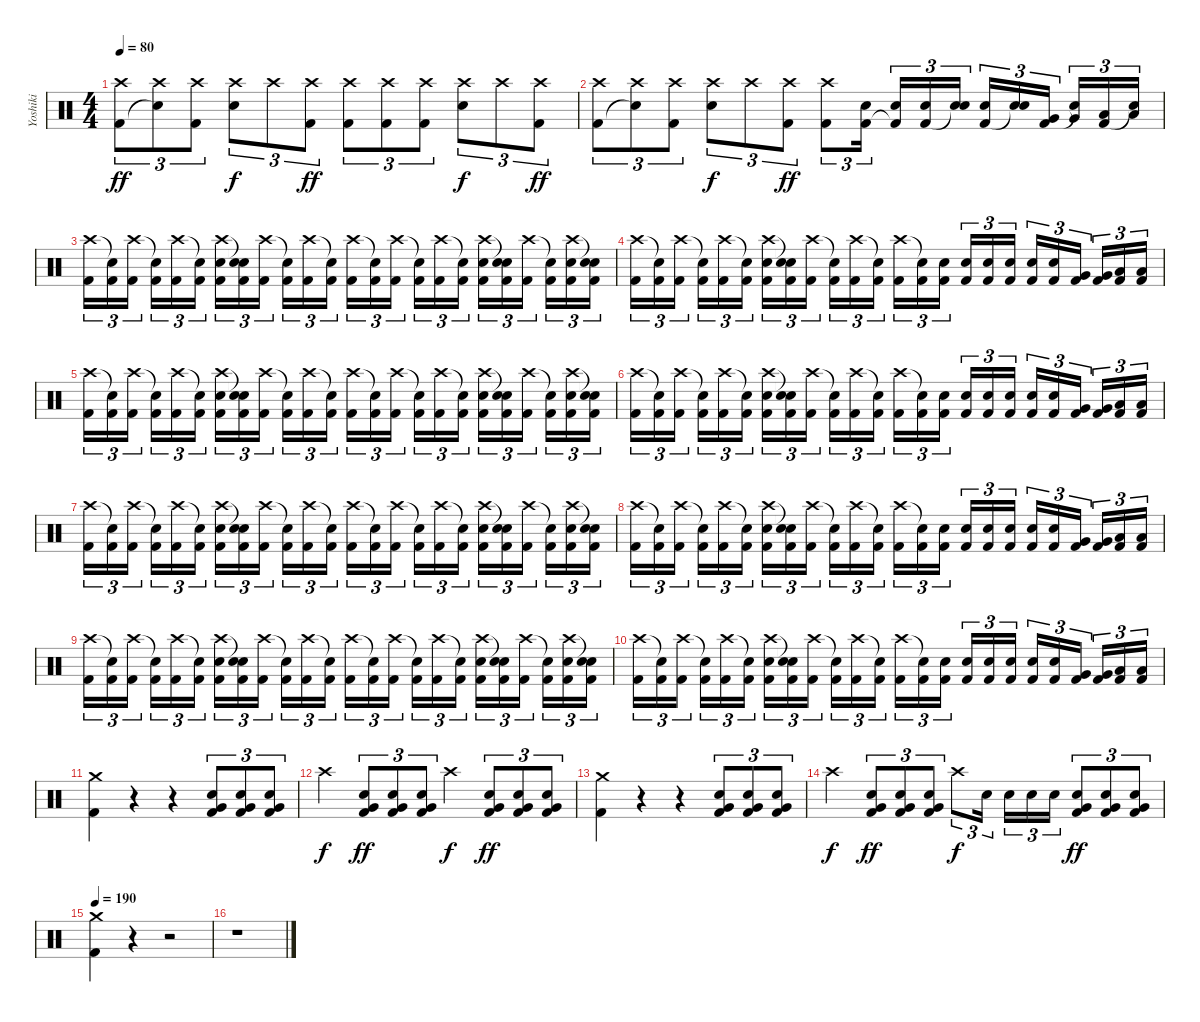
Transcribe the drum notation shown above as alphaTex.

\track ("Yoshiki" "Yoshiki") {instrument percussion}
\staff {score}
\articulation defaults
\ts (4 4)
\tempo 80
\clef neutral
\ks c
("Crash high (hit)" "Kick (hit) 2").8{tu (3 2) dy ff} ("Crash high (hit)" "Snare (hit)"{t}).8{tu (3 2)} ("Crash high (hit)" "Kick (hit) 2").8{tu (3 2)} ("Crash high (hit)" "Snare (hit) 2").8{tu (3 2) dy f} "Crash high (hit)".8{tu (3 2)} ("Crash high (hit)" "Kick (hit) 2").8{tu (3 2) dy ff} ("Crash high (hit)" "Kick (hit) 2").8{tu (3 2)} ("Crash high (hit)" "Kick (hit) 2").8{tu (3 2)} ("Crash high (hit)" "Kick (hit) 2").8{tu (3 2)} ("Crash high (hit)" "Snare (hit) 2").8{tu (3 2) dy f} "Crash high (hit)".8{tu (3 2)} ("Crash high (hit)" "Kick (hit) 2").8{tu (3 2) dy ff} |
("Crash high (hit)" "Kick (hit) 2").8{tu (3 2)} ("Crash high (hit)" "Snare (hit)"{t}).8{tu (3 2)} ("Crash high (hit)" "Kick (hit) 2").8{tu (3 2)} ("Crash high (hit)" "Snare (hit) 2").8{tu (3 2) dy f} "Crash high (hit)".8{tu (3 2)} ("Crash high (hit)" "Kick (hit) 2").8{tu (3 2) dy ff} ("Crash high (hit)" "Kick (hit) 2").8{tu (3 2)} ("Snare (hit) 2" "Kick (hit) 2").16{tu (3 2)} ("Snare (hit) 2" "Kick (hit) 2"{t}).16{tu (3 2)} ("Snare (hit) 2" "Kick (hit) 2").16{tu (3 2)} ("Snare (hit) 2" "Snare (hit)"{t}).16{tu (3 2)} ("Snare (hit) 2" "Kick (hit) 2").16{tu (3 2)} ("Snare (hit) 2" "Snare (hit)"{t}).16{tu (3 2)} ("Very Low Tom (hit)" "Kick (hit) 2").16{tu (3 2)} ("Very Low Tom (hit)" "Snare (hit)"{t}).16{tu (3 2)} ("Low Floor Tom (hit)" "Kick (hit) 2").16{tu (3 2)} ("Low Floor Tom (hit)" "Snare (hit)"{t}).16{tu (3 2)} |
("Crash high (hit)" "Kick (hit) 2").16{tu (3 2)} ("Snare (hit)"{t} "Kick (hit) 2").16{tu (3 2)} ("Crash high (hit)" "Kick (hit) 2").16{tu (3 2)} ("Snare (hit)"{t} "Kick (hit) 2").16{tu (3 2)} ("Crash high (hit)" "Kick (hit) 2").16{tu (3 2)} ("Snare (hit)"{t} "Kick (hit) 2").16{tu (3 2)} ("Crash high (hit)" "Snare (hit) 2" "Kick (hit) 2").16{tu (3 2)} ("Snare (hit)"{t} "Snare (hit)"{t} "Kick (hit) 2").16{tu (3 2)} ("Crash high (hit)" "Kick (hit) 2").16{tu (3 2)} ("Snare (hit)"{t} "Kick (hit) 2").16{tu (3 2)} ("Crash high (hit)" "Kick (hit) 2").16{tu (3 2)} ("Snare (hit)"{t} "Kick (hit) 2").16{tu (3 2)} ("Crash high (hit)" "Kick (hit) 2").16{tu (3 2)} ("Snare (hit)"{t} "Kick (hit) 2").16{tu (3 2)} ("Crash high (hit)" "Kick (hit) 2").16{tu (3 2)} ("Snare (hit)"{t} "Kick (hit) 2").16{tu (3 2)} ("Crash high (hit)" "Kick (hit) 2").16{tu (3 2)} ("Snare (hit)"{t} "Kick (hit) 2").16{tu (3 2)} ("Crash high (hit)" "Snare (hit) 2" "Kick (hit) 2").16{tu (3 2)} ("Snare (hit)"{t} "Snare (hit)"{t} "Kick (hit) 2").16{tu (3 2)} ("Crash high (hit)" "Kick (hit) 2").16{tu (3 2)} ("Snare (hit)"{t} "Kick (hit) 2").16{tu (3 2)} ("Crash high (hit)" "Snare (hit) 2" "Kick (hit) 2").16{tu (3 2)} ("Snare (hit)"{t} "Snare (hit)"{t} "Kick (hit) 2").16{tu (3 2)} |
("Crash high (hit)" "Kick (hit) 2").16{tu (3 2)} ("Snare (hit)"{t} "Kick (hit) 2").16{tu (3 2)} ("Crash high (hit)" "Kick (hit) 2").16{tu (3 2)} ("Snare (hit)"{t} "Kick (hit) 2").16{tu (3 2)} ("Crash high (hit)" "Kick (hit) 2").16{tu (3 2)} ("Snare (hit)"{t} "Kick (hit) 2").16{tu (3 2)} ("Crash high (hit)" "Snare (hit) 2" "Kick (hit) 2").16{tu (3 2)} ("Snare (hit)"{t} "Snare (hit)"{t} "Kick (hit) 2").16{tu (3 2)} ("Crash high (hit)" "Kick (hit) 2").16{tu (3 2)} ("Snare (hit)"{t} "Kick (hit) 2").16{tu (3 2)} ("Crash high (hit)" "Kick (hit) 2").16{tu (3 2)} ("Snare (hit)"{t} "Kick (hit) 2").16{tu (3 2)} ("Crash high (hit)" "Kick (hit) 2").16{tu (3 2)} ("Snare (hit)"{t} "Kick (hit) 2").16{tu (3 2)} ("Snare (hit) 2" "Kick (hit) 2").16{tu (3 2)} ("Snare (hit) 2" "Kick (hit) 2").16{tu (3 2)} ("Snare (hit) 2" "Kick (hit) 2").16{tu (3 2)} ("Snare (hit) 2" "Kick (hit) 2").16{tu (3 2)} ("Snare (hit) 2" "Kick (hit) 2").16{tu (3 2)} ("Snare (hit) 2" "Kick (hit) 2").16{tu (3 2)} ("Very Low Tom (hit)" "Kick (hit) 2").16{tu (3 2)} ("Very Low Tom (hit)" "Kick (hit) 2").16{tu (3 2)} ("Low Floor Tom (hit)" "Kick (hit) 2").16{tu (3 2)} ("Low Floor Tom (hit)" "Kick (hit) 2").16{tu (3 2)} |
("Crash high (hit)" "Kick (hit) 2").16{tu (3 2)} ("Snare (hit)"{t} "Kick (hit) 2").16{tu (3 2)} ("Crash high (hit)" "Kick (hit) 2").16{tu (3 2)} ("Snare (hit)"{t} "Kick (hit) 2").16{tu (3 2)} ("Crash high (hit)" "Kick (hit) 2").16{tu (3 2)} ("Snare (hit)"{t} "Kick (hit) 2").16{tu (3 2)} ("Crash high (hit)" "Snare (hit) 2" "Kick (hit) 2").16{tu (3 2)} ("Snare (hit)"{t} "Snare (hit)"{t} "Kick (hit) 2").16{tu (3 2)} ("Crash high (hit)" "Kick (hit) 2").16{tu (3 2)} ("Snare (hit)"{t} "Kick (hit) 2").16{tu (3 2)} ("Crash high (hit)" "Kick (hit) 2").16{tu (3 2)} ("Snare (hit)"{t} "Kick (hit) 2").16{tu (3 2)} ("Crash high (hit)" "Kick (hit) 2").16{tu (3 2)} ("Snare (hit)"{t} "Kick (hit) 2").16{tu (3 2)} ("Crash high (hit)" "Kick (hit) 2").16{tu (3 2)} ("Snare (hit)"{t} "Kick (hit) 2").16{tu (3 2)} ("Crash high (hit)" "Kick (hit) 2").16{tu (3 2)} ("Snare (hit)"{t} "Kick (hit) 2").16{tu (3 2)} ("Crash high (hit)" "Snare (hit) 2" "Kick (hit) 2").16{tu (3 2)} ("Snare (hit)"{t} "Snare (hit)"{t} "Kick (hit) 2").16{tu (3 2)} ("Crash high (hit)" "Kick (hit) 2").16{tu (3 2)} ("Snare (hit)"{t} "Kick (hit) 2").16{tu (3 2)} ("Crash high (hit)" "Snare (hit) 2" "Kick (hit) 2").16{tu (3 2)} ("Snare (hit)"{t} "Snare (hit)"{t} "Kick (hit) 2").16{tu (3 2)} |
("Crash high (hit)" "Kick (hit) 2").16{tu (3 2)} ("Snare (hit)"{t} "Kick (hit) 2").16{tu (3 2)} ("Crash high (hit)" "Kick (hit) 2").16{tu (3 2)} ("Snare (hit)"{t} "Kick (hit) 2").16{tu (3 2)} ("Crash high (hit)" "Kick (hit) 2").16{tu (3 2)} ("Snare (hit)"{t} "Kick (hit) 2").16{tu (3 2)} ("Crash high (hit)" "Snare (hit) 2" "Kick (hit) 2").16{tu (3 2)} ("Snare (hit)"{t} "Snare (hit)"{t} "Kick (hit) 2").16{tu (3 2)} ("Crash high (hit)" "Kick (hit) 2").16{tu (3 2)} ("Snare (hit)"{t} "Kick (hit) 2").16{tu (3 2)} ("Crash high (hit)" "Kick (hit) 2").16{tu (3 2)} ("Snare (hit)"{t} "Kick (hit) 2").16{tu (3 2)} ("Crash high (hit)" "Kick (hit) 2").16{tu (3 2)} ("Snare (hit)"{t} "Kick (hit) 2").16{tu (3 2)} ("Snare (hit) 2" "Kick (hit) 2").16{tu (3 2)} ("Snare (hit) 2" "Kick (hit) 2").16{tu (3 2)} ("Snare (hit) 2" "Kick (hit) 2").16{tu (3 2)} ("Snare (hit) 2" "Kick (hit) 2").16{tu (3 2)} ("Snare (hit) 2" "Kick (hit) 2").16{tu (3 2)} ("Snare (hit) 2" "Kick (hit) 2").16{tu (3 2)} ("Very Low Tom (hit)" "Kick (hit) 2").16{tu (3 2)} ("Very Low Tom (hit)" "Kick (hit) 2").16{tu (3 2)} ("Low Floor Tom (hit)" "Kick (hit) 2").16{tu (3 2)} ("Low Floor Tom (hit)" "Kick (hit) 2").16{tu (3 2)} |
("Crash high (hit)" "Kick (hit) 2").16{tu (3 2)} ("Snare (hit)"{t} "Kick (hit) 2").16{tu (3 2)} ("Crash high (hit)" "Kick (hit) 2").16{tu (3 2)} ("Snare (hit)"{t} "Kick (hit) 2").16{tu (3 2)} ("Crash high (hit)" "Kick (hit) 2").16{tu (3 2)} ("Snare (hit)"{t} "Kick (hit) 2").16{tu (3 2)} ("Crash high (hit)" "Snare (hit) 2" "Kick (hit) 2").16{tu (3 2)} ("Snare (hit)"{t} "Snare (hit)"{t} "Kick (hit) 2").16{tu (3 2)} ("Crash high (hit)" "Kick (hit) 2").16{tu (3 2)} ("Snare (hit)"{t} "Kick (hit) 2").16{tu (3 2)} ("Crash high (hit)" "Kick (hit) 2").16{tu (3 2)} ("Snare (hit)"{t} "Kick (hit) 2").16{tu (3 2)} ("Crash high (hit)" "Kick (hit) 2").16{tu (3 2)} ("Snare (hit)"{t} "Kick (hit) 2").16{tu (3 2)} ("Crash high (hit)" "Kick (hit) 2").16{tu (3 2)} ("Snare (hit)"{t} "Kick (hit) 2").16{tu (3 2)} ("Crash high (hit)" "Kick (hit) 2").16{tu (3 2)} ("Snare (hit)"{t} "Kick (hit) 2").16{tu (3 2)} ("Crash high (hit)" "Snare (hit) 2" "Kick (hit) 2").16{tu (3 2)} ("Snare (hit)"{t} "Snare (hit)"{t} "Kick (hit) 2").16{tu (3 2)} ("Crash high (hit)" "Kick (hit) 2").16{tu (3 2)} ("Snare (hit)"{t} "Kick (hit) 2").16{tu (3 2)} ("Crash high (hit)" "Snare (hit) 2" "Kick (hit) 2").16{tu (3 2)} ("Snare (hit)"{t} "Snare (hit)"{t} "Kick (hit) 2").16{tu (3 2)} |
("Crash high (hit)" "Kick (hit) 2").16{tu (3 2)} ("Snare (hit)"{t} "Kick (hit) 2").16{tu (3 2)} ("Crash high (hit)" "Kick (hit) 2").16{tu (3 2)} ("Snare (hit)"{t} "Kick (hit) 2").16{tu (3 2)} ("Crash high (hit)" "Kick (hit) 2").16{tu (3 2)} ("Snare (hit)"{t} "Kick (hit) 2").16{tu (3 2)} ("Crash high (hit)" "Snare (hit) 2" "Kick (hit) 2").16{tu (3 2)} ("Snare (hit)"{t} "Snare (hit)"{t} "Kick (hit) 2").16{tu (3 2)} ("Crash high (hit)" "Kick (hit) 2").16{tu (3 2)} ("Snare (hit)"{t} "Kick (hit) 2").16{tu (3 2)} ("Crash high (hit)" "Kick (hit) 2").16{tu (3 2)} ("Snare (hit)"{t} "Kick (hit) 2").16{tu (3 2)} ("Crash high (hit)" "Kick (hit) 2").16{tu (3 2)} ("Snare (hit)"{t} "Kick (hit) 2").16{tu (3 2)} ("Snare (hit) 2" "Kick (hit) 2").16{tu (3 2)} ("Snare (hit) 2" "Kick (hit) 2").16{tu (3 2)} ("Snare (hit) 2" "Kick (hit) 2").16{tu (3 2)} ("Snare (hit) 2" "Kick (hit) 2").16{tu (3 2)} ("Snare (hit) 2" "Kick (hit) 2").16{tu (3 2)} ("Snare (hit) 2" "Kick (hit) 2").16{tu (3 2)} ("Very Low Tom (hit)" "Kick (hit) 2").16{tu (3 2)} ("Very Low Tom (hit)" "Kick (hit) 2").16{tu (3 2)} ("Low Floor Tom (hit)" "Kick (hit) 2").16{tu (3 2)} ("Low Floor Tom (hit)" "Kick (hit) 2").16{tu (3 2)} |
("Crash high (hit)" "Kick (hit) 2").16{tu (3 2)} ("Snare (hit)"{t} "Kick (hit) 2").16{tu (3 2)} ("Crash high (hit)" "Kick (hit) 2").16{tu (3 2)} ("Snare (hit)"{t} "Kick (hit) 2").16{tu (3 2)} ("Crash high (hit)" "Kick (hit) 2").16{tu (3 2)} ("Snare (hit)"{t} "Kick (hit) 2").16{tu (3 2)} ("Crash high (hit)" "Snare (hit) 2" "Kick (hit) 2").16{tu (3 2)} ("Snare (hit)"{t} "Snare (hit)"{t} "Kick (hit) 2").16{tu (3 2)} ("Crash high (hit)" "Kick (hit) 2").16{tu (3 2)} ("Snare (hit)"{t} "Kick (hit) 2").16{tu (3 2)} ("Crash high (hit)" "Kick (hit) 2").16{tu (3 2)} ("Snare (hit)"{t} "Kick (hit) 2").16{tu (3 2)} ("Crash high (hit)" "Kick (hit) 2").16{tu (3 2)} ("Snare (hit)"{t} "Kick (hit) 2").16{tu (3 2)} ("Crash high (hit)" "Kick (hit) 2").16{tu (3 2)} ("Snare (hit)"{t} "Kick (hit) 2").16{tu (3 2)} ("Crash high (hit)" "Kick (hit) 2").16{tu (3 2)} ("Snare (hit)"{t} "Kick (hit) 2").16{tu (3 2)} ("Crash high (hit)" "Snare (hit) 2" "Kick (hit) 2").16{tu (3 2)} ("Snare (hit)"{t} "Snare (hit)"{t} "Kick (hit) 2").16{tu (3 2)} ("Crash high (hit)" "Kick (hit) 2").16{tu (3 2)} ("Snare (hit)"{t} "Kick (hit) 2").16{tu (3 2)} ("Crash high (hit)" "Snare (hit) 2" "Kick (hit) 2").16{tu (3 2)} ("Snare (hit)"{t} "Snare (hit)"{t} "Kick (hit) 2").16{tu (3 2)} |
("Crash high (hit)" "Kick (hit) 2").16{tu (3 2)} ("Snare (hit)"{t} "Kick (hit) 2").16{tu (3 2)} ("Crash high (hit)" "Kick (hit) 2").16{tu (3 2)} ("Snare (hit)"{t} "Kick (hit) 2").16{tu (3 2)} ("Crash high (hit)" "Kick (hit) 2").16{tu (3 2)} ("Snare (hit)"{t} "Kick (hit) 2").16{tu (3 2)} ("Crash high (hit)" "Snare (hit) 2" "Kick (hit) 2").16{tu (3 2)} ("Snare (hit)"{t} "Snare (hit)"{t} "Kick (hit) 2").16{tu (3 2)} ("Crash high (hit)" "Kick (hit) 2").16{tu (3 2)} ("Snare (hit)"{t} "Kick (hit) 2").16{tu (3 2)} ("Crash high (hit)" "Kick (hit) 2").16{tu (3 2)} ("Snare (hit)"{t} "Kick (hit) 2").16{tu (3 2)} ("Crash high (hit)" "Kick (hit) 2").16{tu (3 2)} ("Snare (hit)"{t} "Kick (hit) 2").16{tu (3 2)} ("Snare (hit) 2" "Kick (hit) 2").16{tu (3 2)} ("Snare (hit) 2" "Kick (hit) 2").16{tu (3 2)} ("Snare (hit) 2" "Kick (hit) 2").16{tu (3 2)} ("Snare (hit) 2" "Kick (hit) 2").16{tu (3 2)} ("Snare (hit) 2" "Kick (hit) 2").16{tu (3 2)} ("Snare (hit) 2" "Kick (hit) 2").16{tu (3 2)} ("Very Low Tom (hit)" "Kick (hit) 2").16{tu (3 2)} ("Very Low Tom (hit)" "Kick (hit) 2").16{tu (3 2)} ("Low Floor Tom (hit)" "Kick (hit) 2").16{tu (3 2)} ("Low Floor Tom (hit)" "Kick (hit) 2").16{tu (3 2)} |
("Crash medium (hit)" "Kick (hit) 2").4 r.4 r.4 ("Snare (hit) 2" "Very Low Tom (hit)" "Kick (hit) 2").8{tu (3 2)} ("Snare (hit) 2" "Very Low Tom (hit)" "Kick (hit) 2").8{tu (3 2)} ("Snare (hit) 2" "Very Low Tom (hit)" "Kick (hit) 2").8{tu (3 2)} |
"Crash high (hit)".4{dy f} ("Snare (hit) 2" "Very Low Tom (hit)" "Kick (hit) 2").8{tu (3 2) dy ff} ("Snare (hit) 2" "Very Low Tom (hit)" "Kick (hit) 2").8{tu (3 2)} ("Snare (hit) 2" "Very Low Tom (hit)" "Kick (hit) 2").8{tu (3 2)} "Crash high (hit)".4{dy f} ("Snare (hit) 2" "Very Low Tom (hit)" "Kick (hit) 2").8{tu (3 2) dy ff} ("Snare (hit) 2" "Very Low Tom (hit)" "Kick (hit) 2").8{tu (3 2)} ("Snare (hit) 2" "Very Low Tom (hit)" "Kick (hit) 2").8{tu (3 2)} |
("Crash medium (hit)" "Kick (hit) 2").4 r.4 r.4 ("Snare (hit) 2" "Very Low Tom (hit)" "Kick (hit) 2").8{tu (3 2)} ("Snare (hit) 2" "Very Low Tom (hit)" "Kick (hit) 2").8{tu (3 2)} ("Snare (hit) 2" "Very Low Tom (hit)" "Kick (hit) 2").8{tu (3 2)} |
"Crash high (hit)".4{dy f} ("Snare (hit) 2" "Very Low Tom (hit)" "Kick (hit) 2").8{tu (3 2) dy ff} ("Snare (hit) 2" "Very Low Tom (hit)" "Kick (hit) 2").8{tu (3 2)} ("Snare (hit) 2" "Very Low Tom (hit)" "Kick (hit) 2").8{tu (3 2)} "Crash high (hit)".8{tu (3 2) dy f} "Snare (hit) 2".16{tu (3 2)} "Snare (hit) 2".16{tu (3 2)} "Snare (hit) 2".16{tu (3 2)} "Snare (hit) 2".16{tu (3 2)} ("Snare (hit) 2" "Very Low Tom (hit)" "Kick (hit) 2").8{tu (3 2) dy ff} ("Snare (hit) 2" "Very Low Tom (hit)" "Kick (hit) 2").8{tu (3 2)} ("Snare (hit) 2" "Very Low Tom (hit)" "Kick (hit) 2").8{tu (3 2)} |
\tempo 190
("Crash medium (hit)" "Kick (hit) 2").4 r.4 r.2 |
r.1
